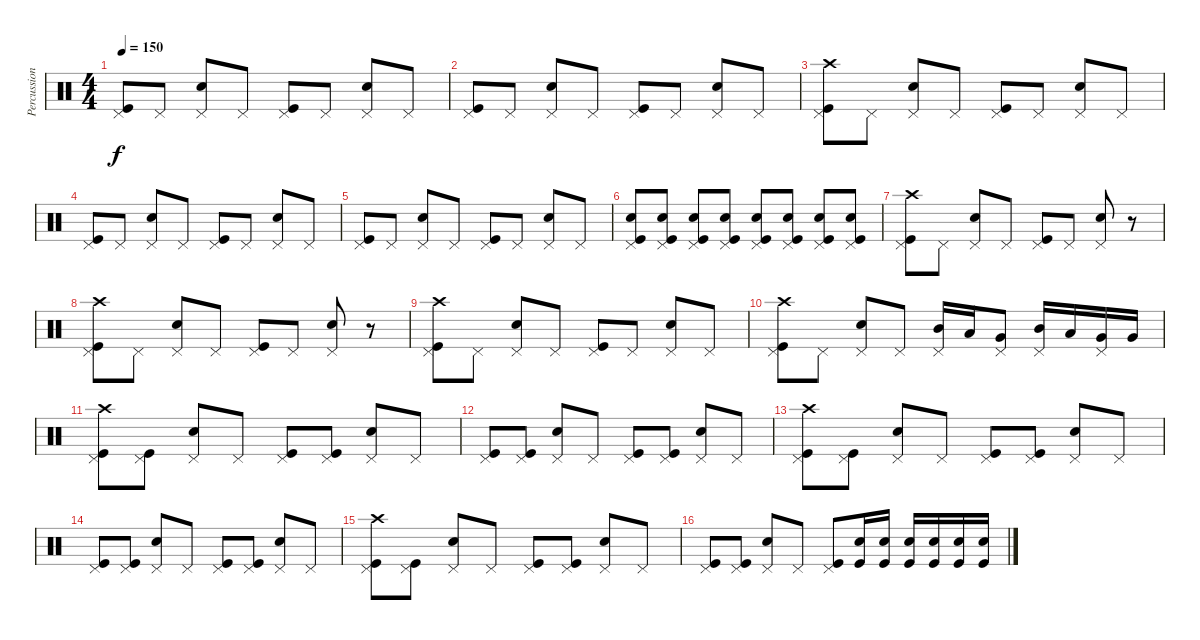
\track ("Percussion" "Percussion") {instrument percussion}
\staff {score}
\articulation defaults
\ts (4 4)
\tempo 150
\clef neutral
\ks c
("Pedal Hi-Hat (hit)" "Kick (hit)").8{dy f} "Pedal Hi-Hat (hit)".8 ("Pedal Hi-Hat (hit)" "Snare (hit) 2").8 "Pedal Hi-Hat (hit)".8 ("Pedal Hi-Hat (hit)" "Kick (hit)").8 "Pedal Hi-Hat (hit)".8 ("Pedal Hi-Hat (hit)" "Snare (hit) 2").8 "Pedal Hi-Hat (hit)".8 |
("Pedal Hi-Hat (hit)" "Kick (hit)").8 "Pedal Hi-Hat (hit)".8 ("Pedal Hi-Hat (hit)" "Snare (hit) 2").8 "Pedal Hi-Hat (hit)".8 ("Pedal Hi-Hat (hit)" "Kick (hit)").8 "Pedal Hi-Hat (hit)".8 ("Pedal Hi-Hat (hit)" "Snare (hit) 2").8 "Pedal Hi-Hat (hit)".8 |
("Pedal Hi-Hat (hit)" "Crash high (hit)" "Kick (hit)").8 "Pedal Hi-Hat (hit)".8 ("Pedal Hi-Hat (hit)" "Snare (hit) 2").8 "Pedal Hi-Hat (hit)".8 ("Pedal Hi-Hat (hit)" "Kick (hit)").8 "Pedal Hi-Hat (hit)".8 ("Pedal Hi-Hat (hit)" "Snare (hit) 2").8 "Pedal Hi-Hat (hit)".8 |
("Pedal Hi-Hat (hit)" "Kick (hit)").8 "Pedal Hi-Hat (hit)".8 ("Pedal Hi-Hat (hit)" "Snare (hit) 2").8 "Pedal Hi-Hat (hit)".8 ("Pedal Hi-Hat (hit)" "Kick (hit)").8 "Pedal Hi-Hat (hit)".8 ("Pedal Hi-Hat (hit)" "Snare (hit) 2").8 "Pedal Hi-Hat (hit)".8 |
("Pedal Hi-Hat (hit)" "Kick (hit)").8 "Pedal Hi-Hat (hit)".8 ("Pedal Hi-Hat (hit)" "Snare (hit) 2").8 "Pedal Hi-Hat (hit)".8 ("Pedal Hi-Hat (hit)" "Kick (hit)").8 "Pedal Hi-Hat (hit)".8 ("Pedal Hi-Hat (hit)" "Snare (hit) 2").8 "Pedal Hi-Hat (hit)".8 |
("Pedal Hi-Hat (hit)" "Snare (hit) 2" "Kick (hit)").8 ("Pedal Hi-Hat (hit)" "Snare (hit) 2" "Kick (hit)").8 ("Pedal Hi-Hat (hit)" "Snare (hit) 2" "Kick (hit)").8 ("Pedal Hi-Hat (hit)" "Snare (hit) 2" "Kick (hit)").8 ("Pedal Hi-Hat (hit)" "Snare (hit) 2" "Kick (hit)").8 ("Pedal Hi-Hat (hit)" "Snare (hit) 2" "Kick (hit)").8 ("Pedal Hi-Hat (hit)" "Snare (hit) 2" "Kick (hit)").8 ("Pedal Hi-Hat (hit)" "Snare (hit) 2" "Kick (hit)").8 |
("Pedal Hi-Hat (hit)" "Crash high (hit)" "Kick (hit)").8 "Pedal Hi-Hat (hit)".8 ("Pedal Hi-Hat (hit)" "Snare (hit) 2").8 "Pedal Hi-Hat (hit)".8 ("Pedal Hi-Hat (hit)" "Kick (hit)").8 "Pedal Hi-Hat (hit)".8 ("Pedal Hi-Hat (hit)" "Snare (hit) 2").8 r.8 |
("Pedal Hi-Hat (hit)" "Crash high (hit)" "Kick (hit)").8 "Pedal Hi-Hat (hit)".8 ("Pedal Hi-Hat (hit)" "Snare (hit) 2").8 "Pedal Hi-Hat (hit)".8 ("Pedal Hi-Hat (hit)" "Kick (hit)").8 "Pedal Hi-Hat (hit)".8 ("Pedal Hi-Hat (hit)" "Snare (hit) 2").8 r.8 |
("Pedal Hi-Hat (hit)" "Crash high (hit)" "Kick (hit)").8 "Pedal Hi-Hat (hit)".8 ("Pedal Hi-Hat (hit)" "Snare (hit) 2").8 "Pedal Hi-Hat (hit)".8 ("Pedal Hi-Hat (hit)" "Kick (hit)").8 "Pedal Hi-Hat (hit)".8 ("Pedal Hi-Hat (hit)" "Snare (hit) 2").8 "Pedal Hi-Hat (hit)".8 |
("Pedal Hi-Hat (hit)" "Crash high (hit)" "Kick (hit)").8 "Pedal Hi-Hat (hit)".8 ("Pedal Hi-Hat (hit)" "Snare (hit) 2").8 "Pedal Hi-Hat (hit)".8 ("Pedal Hi-Hat (hit)" "Mid Tom (hit)").16 "Low Tom (hit)".16 ("Pedal Hi-Hat (hit)" "Very Low Tom (hit)").8 ("Pedal Hi-Hat (hit)" "Mid Tom (hit)").16 "Low Tom (hit)".16 ("Pedal Hi-Hat (hit)" "Very Low Tom (hit)").16 "Very Low Tom (hit)".16 |
("Pedal Hi-Hat (hit)" "Crash high (hit)" "Kick (hit)").8 ("Pedal Hi-Hat (hit)" "Kick (hit)").8 ("Pedal Hi-Hat (hit)" "Snare (hit) 2").8 "Pedal Hi-Hat (hit)".8 ("Pedal Hi-Hat (hit)" "Kick (hit)").8 ("Pedal Hi-Hat (hit)" "Kick (hit)").8 ("Pedal Hi-Hat (hit)" "Snare (hit) 2").8 "Pedal Hi-Hat (hit)".8 |
("Pedal Hi-Hat (hit)" "Kick (hit)").8 ("Pedal Hi-Hat (hit)" "Kick (hit)").8 ("Pedal Hi-Hat (hit)" "Snare (hit) 2").8 "Pedal Hi-Hat (hit)".8 ("Pedal Hi-Hat (hit)" "Kick (hit)").8 ("Pedal Hi-Hat (hit)" "Kick (hit)").8 ("Pedal Hi-Hat (hit)" "Snare (hit) 2").8 "Pedal Hi-Hat (hit)".8 |
("Pedal Hi-Hat (hit)" "Crash high (hit)" "Kick (hit)").8 ("Pedal Hi-Hat (hit)" "Kick (hit)").8 ("Pedal Hi-Hat (hit)" "Snare (hit) 2").8 "Pedal Hi-Hat (hit)".8 ("Pedal Hi-Hat (hit)" "Kick (hit)").8 ("Pedal Hi-Hat (hit)" "Kick (hit)").8 ("Pedal Hi-Hat (hit)" "Snare (hit) 2").8 "Pedal Hi-Hat (hit)".8 |
("Pedal Hi-Hat (hit)" "Kick (hit)").8 ("Pedal Hi-Hat (hit)" "Kick (hit)").8 ("Pedal Hi-Hat (hit)" "Snare (hit) 2").8 "Pedal Hi-Hat (hit)".8 ("Pedal Hi-Hat (hit)" "Kick (hit)").8 ("Pedal Hi-Hat (hit)" "Kick (hit)").8 ("Pedal Hi-Hat (hit)" "Snare (hit) 2").8 "Pedal Hi-Hat (hit)".8 |
("Pedal Hi-Hat (hit)" "Crash high (hit)" "Kick (hit)").8 ("Pedal Hi-Hat (hit)" "Kick (hit)").8 ("Pedal Hi-Hat (hit)" "Snare (hit) 2").8 "Pedal Hi-Hat (hit)".8 ("Pedal Hi-Hat (hit)" "Kick (hit)").8 ("Pedal Hi-Hat (hit)" "Kick (hit)").8 ("Pedal Hi-Hat (hit)" "Snare (hit) 2").8 "Pedal Hi-Hat (hit)".8 |
("Pedal Hi-Hat (hit)" "Kick (hit)").8 ("Pedal Hi-Hat (hit)" "Kick (hit)").8 ("Pedal Hi-Hat (hit)" "Snare (hit) 2").8 "Pedal Hi-Hat (hit)".8 ("Pedal Hi-Hat (hit)" "Kick (hit)").8 ("Snare (hit) 2" "Kick (hit)").16 ("Snare (hit) 2" "Kick (hit)").16 ("Snare (hit) 2" "Kick (hit)").16 ("Snare (hit) 2" "Kick (hit)").16 ("Snare (hit) 2" "Kick (hit)").16 ("Snare (hit) 2" "Kick (hit)").16
